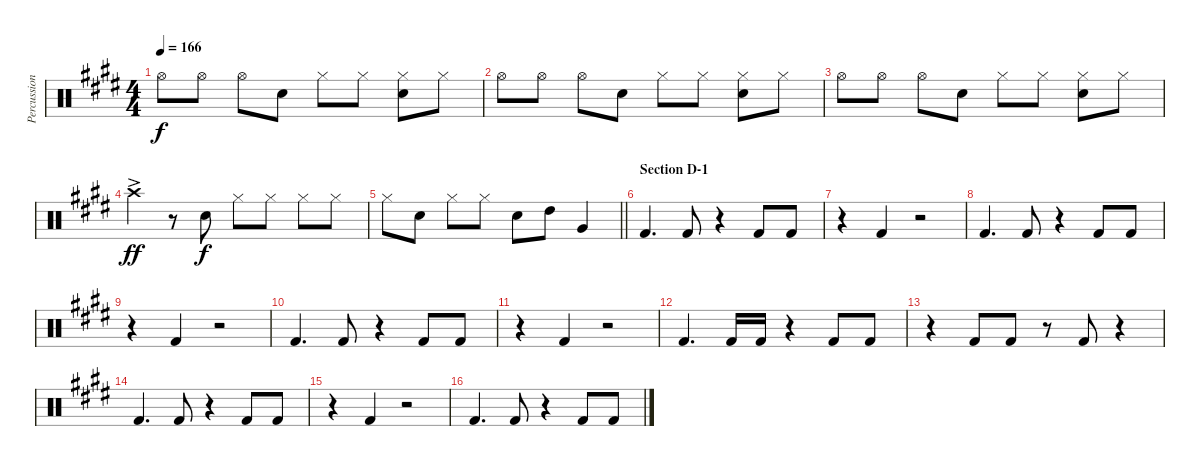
\track ("Percussion - Other Again" "Percussion") {instrument percussion}
\staff {score}
\articulation defaults
\ts (4 4)
\tempo 166
\clef neutral
\ks e "Hi-Hat (open)".8{dy f} "Hi-Hat (open)".8 "Hi-Hat (open)".8 "Snare (hit) 2".8 "Hi-Hat (closed)".8 "Hi-Hat (closed)".8
("Hi-Hat (closed)" "Snare (hit) 2").8 "Hi-Hat (closed)".8 |
"Hi-Hat (open)".8 "Hi-Hat (open)".8 "Hi-Hat (open)".8 "Snare (hit) 2".8 "Hi-Hat (closed)".8 "Hi-Hat (closed)".8 ("Hi-Hat (closed)" "Snare (hit) 2").8 "Hi-Hat (closed)".8 |
"Hi-Hat (open)".8 "Hi-Hat (open)".8 "Hi-Hat (open)".8 "Snare (hit) 2".8 "Hi-Hat (closed)".8 "Hi-Hat (closed)".8 ("Hi-Hat (closed)" "Snare (hit) 2").8 "Hi-Hat (closed)".8 |
"Crash high (hit)"{ac}.4{dy ff} r.8 "Snare (hit) 2".8{dy f} "Hi-Hat (closed)".8 "Hi-Hat (closed)".8 "Hi-Hat (closed)".8 "Hi-Hat (closed)".8 |
\barLineRight lightlight "Hi-Hat (closed)".8 "Snare (hit) 2".8 "Hi-Hat (closed)".8 "Hi-Hat (closed)".8 "Snare (hit) 2".8 "High Tom (hit)".8 "Very Low Tom (hit)".4
|
\section ("" "Section D-1")
"Kick (hit) 2".4{d} "Kick (hit) 2".8 r.4 "Kick (hit) 2".8 "Kick (hit) 2".8 |
r.4 "Kick (hit) 2".4 r.2 |
"Kick (hit) 2".4{d} "Kick (hit) 2".8 r.4 "Kick (hit) 2".8 "Kick (hit) 2".8 |
r.4 "Kick (hit) 2".4 r.2 |
"Kick (hit) 2".4{d} "Kick (hit) 2".8 r.4 "Kick (hit) 2".8 "Kick (hit) 2".8 |
r.4 "Kick (hit) 2".4 r.2 |
"Kick (hit) 2".4{d} "Kick (hit) 2".16 "Kick (hit) 2".16 r.4 "Kick (hit) 2".8 "Kick (hit) 2".8 |
r.4 "Kick (hit) 2".8 "Kick (hit) 2".8 r.8 "Kick (hit) 2".8 r.4 |
"Kick (hit) 2".4{d} "Kick (hit) 2".8 r.4 "Kick (hit) 2".8 "Kick (hit) 2".8 |
r.4 "Kick (hit) 2".4 r.2 |
"Kick (hit) 2".4{d} "Kick (hit) 2".8 r.4 "Kick (hit) 2".8 "Kick (hit) 2".8
